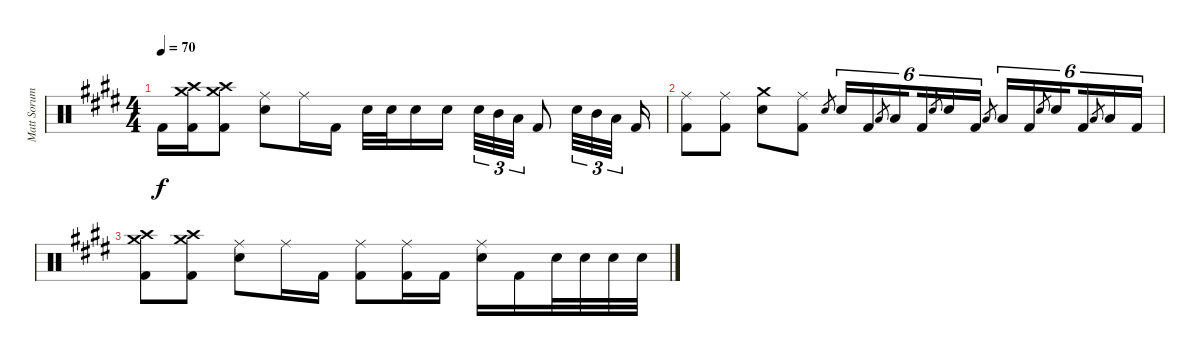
\track ("Matt Sorum - Drums" "Matt Sorum") {instrument percussion}
\staff {score}
\articulation defaults
\ts (4 4)
\tempo 70
\clef neutral
\ks e "Kick (hit) 2".16{dy f}
("Crash high (hit)" "Crash medium (hit)" "Kick (hit) 2").16 ("Crash medium (hit)" "Crash high (hit)" "Kick (hit) 2").8 ("Ride (middle)" "Snare (hit) 2").8 "Ride (middle)".16 "Kick (hit) 2".16 "Snare (hit) 2".32 "Snare (hit) 2".32 "Snare (hit) 2".16 "Snare (hit) 2".16{beam splitsecondary} "Snare (hit) 2".32{tu (3 2)} "Mid Tom (hit)".32{tu (3 2)} "Low Tom (hit)".32{tu (3 2)} "Kick (hit) 2".8 "Snare (hit) 2".32{tu (3 2)} "Mid Tom (hit)".32{tu (3 2)} "Low Tom (hit)".32{tu (3 2) beam splitsecondary} "Kick (hit) 2".16 |
("Ride (middle)" "Kick (hit) 2").8 ("Ride (middle)" "Kick (hit) 2").8 ("Crash medium (hit)" "Snare (hit) 2").8 ("Ride (middle)" "Kick (hit) 2").8 "Snare (hit) 2".8{gr} "Snare (hit) 2".16{tu (6 4)} "Kick (hit) 2".16{tu (6 4)} "Low Tom (hit)".8{gr} "Low Tom (hit)".16{tu (6 4) beam splitsecondary} "Kick (hit) 2".16{tu (6 4)} "Snare (hit) 2".8{gr} "Snare (hit) 2".16{tu (6 4)} "Kick (hit) 2".16{tu (6 4)} "Low Tom (hit)".8{gr} "Low Tom (hit)".16{tu (6 4)} "Kick (hit) 2".16{tu (6 4)} "Snare (hit) 2".8{gr} "Snare (hit) 2".16{tu (6 4) beam splitsecondary} "Kick (hit) 2".16{tu (6 4)} "Low Tom (hit)".8{gr} "Low Tom (hit)".16{tu (6 4)} "Kick (hit) 2".16{tu (6 4)} |
("Crash medium (hit)" "Crash high (hit)" "Kick (hit) 2").8 ("Crash high (hit)" "Crash medium (hit)" "Kick (hit) 2").8 ("Ride (middle)" "Snare (hit) 2").8 "Ride (middle)".16 "Kick (hit) 2".16 ("Ride (middle)" "Kick (hit) 2").8 ("Ride (middle)" "Kick (hit) 2").16 "Kick (hit) 2".16 ("Ride (middle)" "Snare (hit) 2").16 "Kick (hit) 2".16 "Snare (hit) 2".32 "Snare (hit) 2".32 "Snare (hit) 2".32 "Snare (hit) 2".32
